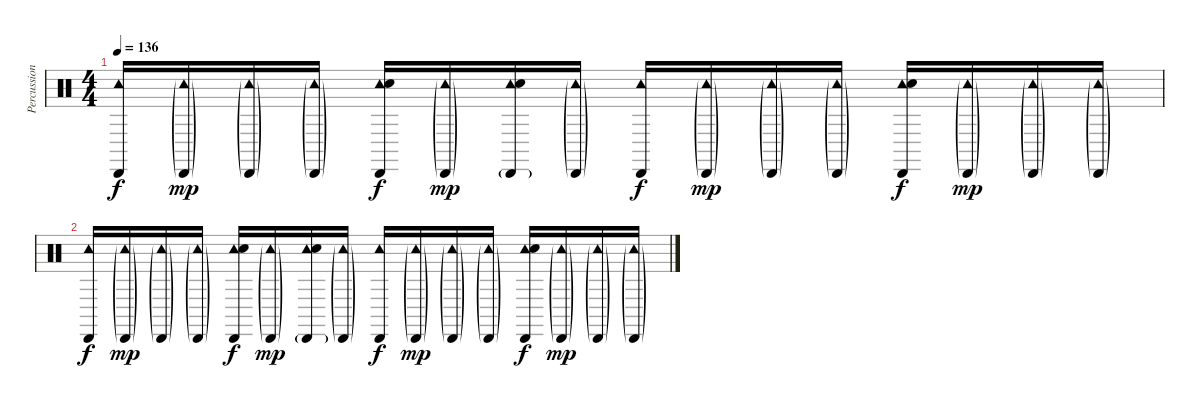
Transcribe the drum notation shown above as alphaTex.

\track ("Percussion (2)" "Percussion") {instrument percussion}
\staff {score}
\articulation defaults
\ts (4 4)
\tempo 136
\clef neutral
\ks c
("Cabasa (hit)" "Tambourine (hit)").16{dy f} ("Cabasa (hit)"{g} "Tambourine (hit)"{g}).16{dy mp} ("Cabasa (hit)"{g} "Tambourine (hit)"{g}).16 ("Cabasa (hit)"{g} "Tambourine (hit)"{g}).16 ("Cabasa (hit)" "Tambourine (hit)" "Hand Clap (hit)").16{dy f} ("Cabasa (hit)"{g} "Tambourine (hit)"{g}).16{dy mp} ("Cabasa (hit)"{g} "Tambourine (hit)" "Hand Clap (hit)").16 ("Cabasa (hit)"{g} "Tambourine (hit)"{g}).16 ("Cabasa (hit)" "Tambourine (hit)").16{dy f} ("Cabasa (hit)"{g} "Tambourine (hit)"{g}).16{dy mp} ("Cabasa (hit)"{g} "Tambourine (hit)"{g}).16 ("Cabasa (hit)"{g} "Tambourine (hit)"{g}).16 ("Cabasa (hit)" "Tambourine (hit)" "Hand Clap (hit)").16{dy f} ("Cabasa (hit)"{g} "Tambourine (hit)"{g}).16{dy mp} ("Cabasa (hit)"{g} "Tambourine (hit)"{g}).16 ("Cabasa (hit)"{g} "Tambourine (hit)"{g}).16 |
("Cabasa (hit)" "Tambourine (hit)").16{dy f} ("Cabasa (hit)"{g} "Tambourine (hit)"{g}).16{dy mp} ("Cabasa (hit)"{g} "Tambourine (hit)"{g}).16 ("Cabasa (hit)"{g} "Tambourine (hit)"{g}).16 ("Cabasa (hit)" "Tambourine (hit)" "Hand Clap (hit)").16{dy f} ("Cabasa (hit)"{g} "Tambourine (hit)"{g}).16{dy mp} ("Cabasa (hit)"{g} "Tambourine (hit)" "Hand Clap (hit)").16 ("Cabasa (hit)"{g} "Tambourine (hit)"{g}).16 ("Cabasa (hit)" "Tambourine (hit)").16{dy f} ("Cabasa (hit)"{g} "Tambourine (hit)"{g}).16{dy mp} ("Cabasa (hit)"{g} "Tambourine (hit)"{g}).16 ("Cabasa (hit)"{g} "Tambourine (hit)"{g}).16 ("Cabasa (hit)" "Tambourine (hit)" "Hand Clap (hit)").16{dy f} ("Cabasa (hit)"{g} "Tambourine (hit)"{g}).16{dy mp} ("Cabasa (hit)"{g} "Tambourine (hit)"{g}).16 ("Cabasa (hit)"{g} "Tambourine (hit)"{g}).16
